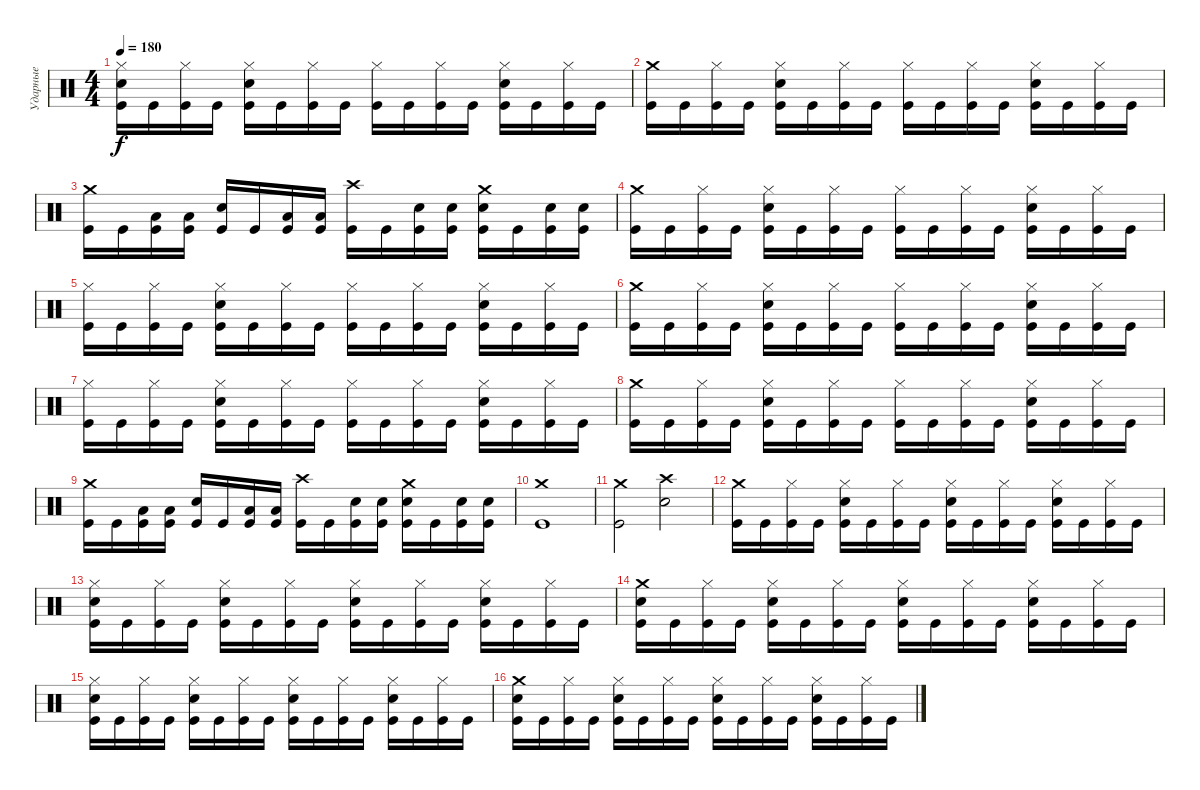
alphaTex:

\track ("Ударные" "Ударные") {instrument percussion}
\staff {score}
\articulation defaults
\ts (4 4)
\tempo 180
\clef neutral
\ks c
("Hi-Hat (closed)" "Electric Snare (hit)" "Kick (hit)").16{dy f} "Kick (hit)".16 ("Hi-Hat (closed)" "Kick (hit)").16 "Kick (hit)".16 ("Hi-Hat (closed)" "Electric Snare (hit)" "Kick (hit)").16 "Kick (hit)".16 ("Hi-Hat (closed)" "Kick (hit)").16 "Kick (hit)".16 ("Hi-Hat (closed)" "Kick (hit)").16 "Kick (hit)".16 ("Hi-Hat (closed)" "Kick (hit)").16 "Kick (hit)".16 ("Hi-Hat (closed)" "Electric Snare (hit)" "Kick (hit)").16 "Kick (hit)".16 ("Hi-Hat (closed)" "Kick (hit)").16 "Kick (hit)".16 |
("Crash medium (hit)" "Kick (hit)").16 "Kick (hit)".16 ("Hi-Hat (closed)" "Kick (hit)").16 "Kick (hit)".16 ("Hi-Hat (closed)" "Electric Snare (hit)" "Kick (hit)").16 "Kick (hit)".16 ("Hi-Hat (closed)" "Kick (hit)").16 "Kick (hit)".16 ("Hi-Hat (closed)" "Kick (hit)").16 "Kick (hit)".16 ("Hi-Hat (closed)" "Kick (hit)").16 "Kick (hit)".16 ("Hi-Hat (closed)" "Electric Snare (hit)" "Kick (hit)").16 "Kick (hit)".16 ("Hi-Hat (closed)" "Kick (hit)").16 "Kick (hit)".16 |
("Crash medium (hit)" "Kick (hit)").16 "Kick (hit)".16 ("Low Tom (hit)" "Kick (hit)").16 ("Low Tom (hit)" "Kick (hit)").16 ("Electric Snare (hit)" "Kick (hit)").16 "Kick (hit)".16 ("Low Tom (hit)" "Kick (hit)").16 ("Low Tom (hit)" "Kick (hit)").16 ("Crash high (hit)" "Kick (hit)").16 "Kick (hit)".16 ("Electric Snare (hit)" "Kick (hit)").16 ("Electric Snare (hit)" "Kick (hit)").16 ("Crash medium (hit)" "Electric Snare (hit)" "Kick (hit)").16 "Kick (hit)".16 ("Electric Snare (hit)" "Kick (hit)").16 ("Electric Snare (hit)" "Kick (hit)").16 |
("Crash medium (hit)" "Kick (hit)").16 "Kick (hit)".16 ("Hi-Hat (closed)" "Kick (hit)").16 "Kick (hit)".16 ("Hi-Hat (closed)" "Electric Snare (hit)" "Kick (hit)").16 "Kick (hit)".16 ("Hi-Hat (closed)" "Kick (hit)").16 "Kick (hit)".16 ("Hi-Hat (closed)" "Kick (hit)").16 "Kick (hit)".16 ("Hi-Hat (closed)" "Kick (hit)").16 "Kick (hit)".16 ("Hi-Hat (closed)" "Electric Snare (hit)" "Kick (hit)").16 "Kick (hit)".16 ("Hi-Hat (closed)" "Kick (hit)").16 "Kick (hit)".16 |
("Hi-Hat (closed)" "Kick (hit)").16 "Kick (hit)".16 ("Hi-Hat (closed)" "Kick (hit)").16 "Kick (hit)".16 ("Hi-Hat (closed)" "Electric Snare (hit)" "Kick (hit)").16 "Kick (hit)".16 ("Hi-Hat (closed)" "Kick (hit)").16 "Kick (hit)".16 ("Hi-Hat (closed)" "Kick (hit)").16 "Kick (hit)".16 ("Hi-Hat (closed)" "Kick (hit)").16 "Kick (hit)".16 ("Hi-Hat (closed)" "Electric Snare (hit)" "Kick (hit)").16 "Kick (hit)".16 ("Hi-Hat (closed)" "Kick (hit)").16 "Kick (hit)".16 |
("Crash medium (hit)" "Kick (hit)").16 "Kick (hit)".16 ("Hi-Hat (closed)" "Kick (hit)").16 "Kick (hit)".16 ("Hi-Hat (closed)" "Electric Snare (hit)" "Kick (hit)").16 "Kick (hit)".16 ("Hi-Hat (closed)" "Kick (hit)").16 "Kick (hit)".16 ("Hi-Hat (closed)" "Kick (hit)").16 "Kick (hit)".16 ("Hi-Hat (closed)" "Kick (hit)").16 "Kick (hit)".16 ("Hi-Hat (closed)" "Electric Snare (hit)" "Kick (hit)").16 "Kick (hit)".16 ("Hi-Hat (closed)" "Kick (hit)").16 "Kick (hit)".16 |
("Hi-Hat (closed)" "Kick (hit)").16 "Kick (hit)".16 ("Hi-Hat (closed)" "Kick (hit)").16 "Kick (hit)".16 ("Hi-Hat (closed)" "Electric Snare (hit)" "Kick (hit)").16 "Kick (hit)".16 ("Hi-Hat (closed)" "Kick (hit)").16 "Kick (hit)".16 ("Hi-Hat (closed)" "Kick (hit)").16 "Kick (hit)".16 ("Hi-Hat (closed)" "Kick (hit)").16 "Kick (hit)".16 ("Hi-Hat (closed)" "Electric Snare (hit)" "Kick (hit)").16 "Kick (hit)".16 ("Hi-Hat (closed)" "Kick (hit)").16 "Kick (hit)".16 |
("Crash medium (hit)" "Kick (hit)").16 "Kick (hit)".16 ("Hi-Hat (closed)" "Kick (hit)").16 "Kick (hit)".16 ("Hi-Hat (closed)" "Electric Snare (hit)" "Kick (hit)").16 "Kick (hit)".16 ("Hi-Hat (closed)" "Kick (hit)").16 "Kick (hit)".16 ("Hi-Hat (closed)" "Kick (hit)").16 "Kick (hit)".16 ("Hi-Hat (closed)" "Kick (hit)").16 "Kick (hit)".16 ("Hi-Hat (closed)" "Electric Snare (hit)" "Kick (hit)").16 "Kick (hit)".16 ("Hi-Hat (closed)" "Kick (hit)").16 "Kick (hit)".16 |
("Crash medium (hit)" "Kick (hit)").16 "Kick (hit)".16 ("Low Tom (hit)" "Kick (hit)").16 ("Low Tom (hit)" "Kick (hit)").16 ("Electric Snare (hit)" "Kick (hit)").16 "Kick (hit)".16 ("Low Tom (hit)" "Kick (hit)").16 ("Low Tom (hit)" "Kick (hit)").16 ("Crash high (hit)" "Kick (hit)").16 "Kick (hit)".16 ("Electric Snare (hit)" "Kick (hit)").16 ("Electric Snare (hit)" "Kick (hit)").16 ("Crash medium (hit)" "Electric Snare (hit)" "Kick (hit)").16 "Kick (hit)".16 ("Electric Snare (hit)" "Kick (hit)").16 ("Electric Snare (hit)" "Kick (hit)").16 |
("Crash medium (hit)" "Kick (hit)").1 |
("Crash medium (hit)" "Kick (hit)").2 ("Crash high (hit)" "Electric Snare (hit)").2 |
("Crash medium (hit)" "Kick (hit)").16 "Kick (hit)".16 ("Hi-Hat (closed)" "Kick (hit)").16 "Kick (hit)".16 ("Hi-Hat (closed)" "Electric Snare (hit)" "Kick (hit)").16 "Kick (hit)".16 ("Hi-Hat (closed)" "Kick (hit)").16 "Kick (hit)".16 ("Hi-Hat (closed)" "Electric Snare (hit)" "Kick (hit)").16 "Kick (hit)".16 ("Hi-Hat (closed)" "Kick (hit)").16 "Kick (hit)".16 ("Hi-Hat (closed)" "Electric Snare (hit)" "Kick (hit)").16 "Kick (hit)".16 ("Hi-Hat (closed)" "Kick (hit)").16 "Kick (hit)".16 |
("Hi-Hat (closed)" "Electric Snare (hit)" "Kick (hit)").16 "Kick (hit)".16 ("Hi-Hat (closed)" "Kick (hit)").16 "Kick (hit)".16 ("Hi-Hat (closed)" "Electric Snare (hit)" "Kick (hit)").16 "Kick (hit)".16 ("Hi-Hat (closed)" "Kick (hit)").16 "Kick (hit)".16 ("Hi-Hat (closed)" "Electric Snare (hit)" "Kick (hit)").16 "Kick (hit)".16 ("Hi-Hat (closed)" "Kick (hit)").16 "Kick (hit)".16 ("Hi-Hat (closed)" "Electric Snare (hit)" "Kick (hit)").16 "Kick (hit)".16 ("Hi-Hat (closed)" "Kick (hit)").16 "Kick (hit)".16 |
("Crash medium (hit)" "Electric Snare (hit)" "Kick (hit)").16 "Kick (hit)".16 ("Hi-Hat (closed)" "Kick (hit)").16 "Kick (hit)".16 ("Hi-Hat (closed)" "Electric Snare (hit)" "Kick (hit)").16 "Kick (hit)".16 ("Hi-Hat (closed)" "Kick (hit)").16 "Kick (hit)".16 ("Hi-Hat (closed)" "Electric Snare (hit)" "Kick (hit)").16 "Kick (hit)".16 ("Hi-Hat (closed)" "Kick (hit)").16 "Kick (hit)".16 ("Hi-Hat (closed)" "Electric Snare (hit)" "Kick (hit)").16 "Kick (hit)".16 ("Hi-Hat (closed)" "Kick (hit)").16 "Kick (hit)".16 |
("Hi-Hat (closed)" "Electric Snare (hit)" "Kick (hit)").16 "Kick (hit)".16 ("Hi-Hat (closed)" "Kick (hit)").16 "Kick (hit)".16 ("Hi-Hat (closed)" "Electric Snare (hit)" "Kick (hit)").16 "Kick (hit)".16 ("Hi-Hat (closed)" "Kick (hit)").16 "Kick (hit)".16 ("Hi-Hat (closed)" "Electric Snare (hit)" "Kick (hit)").16 "Kick (hit)".16 ("Hi-Hat (closed)" "Kick (hit)").16 "Kick (hit)".16 ("Hi-Hat (closed)" "Electric Snare (hit)" "Kick (hit)").16 "Kick (hit)".16 ("Hi-Hat (closed)" "Kick (hit)").16 "Kick (hit)".16 |
("Crash medium (hit)" "Electric Snare (hit)" "Kick (hit)").16 "Kick (hit)".16 ("Hi-Hat (closed)" "Kick (hit)").16 "Kick (hit)".16 ("Hi-Hat (closed)" "Electric Snare (hit)" "Kick (hit)").16 "Kick (hit)".16 ("Hi-Hat (closed)" "Kick (hit)").16 "Kick (hit)".16 ("Hi-Hat (closed)" "Electric Snare (hit)" "Kick (hit)").16 "Kick (hit)".16 ("Hi-Hat (closed)" "Kick (hit)").16 "Kick (hit)".16 ("Hi-Hat (closed)" "Electric Snare (hit)" "Kick (hit)").16 "Kick (hit)".16 ("Hi-Hat (closed)" "Kick (hit)").16 "Kick (hit)".16
